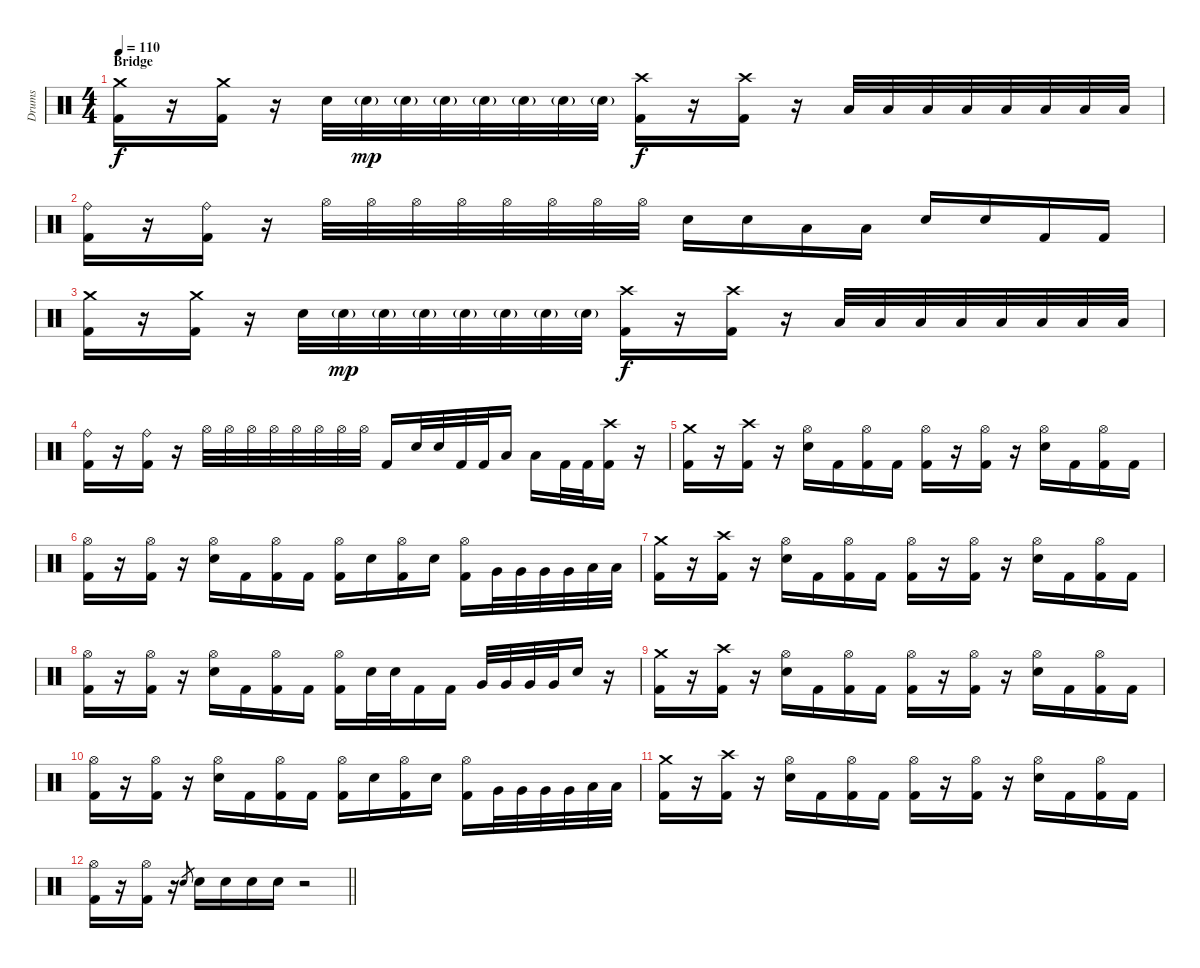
\track ("Drums" "Drums") {instrument percussion}
\staff {score}
\articulation defaults
\ts (4 4)
\section ("" "Bridge")
\tempo 110
\clef neutral
\ks c
("Crash medium (hit)" "Kick (hit) 2").16{dy f} r.16 ("Crash medium (hit)" "Kick (hit) 2").16 r.16 "Electric Snare (hit)".32 "Electric Snare (hit)"{g}.32{dy mp} "Electric Snare (hit)"{g}.32 "Electric Snare (hit)"{g}.32 "Electric Snare (hit)"{g}.32 "Electric Snare (hit)"{g}.32 "Electric Snare (hit)"{g}.32 "Electric Snare (hit)"{g}.32 ("Crash high (hit)" "Kick (hit) 2").16{dy f} r.16 ("Crash high (hit)" "Kick (hit) 2").16 r.16 "Low Floor Tom (hit)".32 "Low Floor Tom (hit)".32 "Low Floor Tom (hit)".32 "Low Floor Tom (hit)".32 "Low Floor Tom (hit)".32 "Low Floor Tom (hit)".32 "Low Floor Tom (hit)".32 "Low Floor Tom (hit)".32 |
("Ride (bell)" "Kick (hit) 2").16 r.16 ("Ride (bell)" "Kick (hit) 2").16 r.16 "Hi-Hat (open)".32 "Hi-Hat (open)".32 "Hi-Hat (open)".32 "Hi-Hat (open)".32 "Hi-Hat (open)".32 "Hi-Hat (open)".32 "Hi-Hat (open)".32 "Hi-Hat (open)".32 "Electric Snare (hit)".16 "Electric Snare (hit)".16 "Low Floor Tom (hit)".16 "Low Floor Tom (hit)".16 "Electric Snare (hit)".16 "Electric Snare (hit)".16 "Kick (hit) 2".16 "Kick (hit) 2".16 |
("Crash medium (hit)" "Kick (hit) 2").16 r.16 ("Crash medium (hit)" "Kick (hit) 2").16 r.16 "Electric Snare (hit)".32 "Electric Snare (hit)"{g}.32{dy mp} "Electric Snare (hit)"{g}.32 "Electric Snare (hit)"{g}.32 "Electric Snare (hit)"{g}.32 "Electric Snare (hit)"{g}.32 "Electric Snare (hit)"{g}.32 "Electric Snare (hit)"{g}.32 ("Crash high (hit)" "Kick (hit) 2").16{dy f} r.16 ("Crash high (hit)" "Kick (hit) 2").16 r.16 "Low Floor Tom (hit)".32 "Low Floor Tom (hit)".32 "Low Floor Tom (hit)".32 "Low Floor Tom (hit)".32 "Low Floor Tom (hit)".32 "Low Floor Tom (hit)".32 "Low Floor Tom (hit)".32 "Low Floor Tom (hit)".32 |
("Ride (bell)" "Kick (hit) 2").16 r.16 ("Ride (bell)" "Kick (hit) 2").16 r.16 "Hi-Hat (open)".32 "Hi-Hat (open)".32 "Hi-Hat (open)".32 "Hi-Hat (open)".32 "Hi-Hat (open)".32 "Hi-Hat (open)".32 "Hi-Hat (open)".32 "Hi-Hat (open)".32 "Kick (hit) 2".16 "Electric Snare (hit)".32 "Electric Snare (hit)".32 "Kick (hit) 2".32 "Kick (hit) 2".32 "Low Floor Tom (hit)".16 "Low Floor Tom (hit)".16 "Kick (hit) 2".32 "Kick (hit) 2".32 ("Crash high (hit)" "Kick (hit) 2").16 r.16 |
("Crash medium (hit)" "Kick (hit) 2").16 r.16 ("Crash high (hit)" "Kick (hit) 2").16 r.16 ("Hi-Hat (open)" "Electric Snare (hit)").16 "Kick (hit) 2".16 ("Hi-Hat (open)" "Kick (hit) 2").16 "Kick (hit) 2".16 ("Hi-Hat (open)" "Kick (hit) 2").16 r.16 ("Hi-Hat (open)" "Kick (hit) 2").16 r.16 ("Hi-Hat (open)" "Electric Snare (hit)").16 "Kick (hit) 2".16 ("Hi-Hat (open)" "Kick (hit) 2").16 "Kick (hit) 2".16 |
("Hi-Hat (open)" "Kick (hit) 2").16 r.16 ("Hi-Hat (open)" "Kick (hit) 2").16 r.16 ("Hi-Hat (open)" "Electric Snare (hit)").16 "Kick (hit) 2".16 ("Hi-Hat (open)" "Kick (hit) 2").16 "Kick (hit) 2".16 ("Hi-Hat (open)" "Kick (hit) 2").16 "Electric Snare (hit)".16 ("Hi-Hat (open)" "Kick (hit) 2").16 "Electric Snare (hit)".16 ("Hi-Hat (open)" "Kick (hit) 2").16 "Very Low Tom (hit)".32 "Very Low Tom (hit)".32 "Very Low Tom (hit)".32 "Very Low Tom (hit)".32 "Low Floor Tom (hit)".32 "Low Floor Tom (hit)".32 |
("Crash medium (hit)" "Kick (hit) 2").16 r.16 ("Crash high (hit)" "Kick (hit) 2").16 r.16 ("Hi-Hat (open)" "Electric Snare (hit)").16 "Kick (hit) 2".16 ("Hi-Hat (open)" "Kick (hit) 2").16 "Kick (hit) 2".16 ("Hi-Hat (open)" "Kick (hit) 2").16 r.16 ("Hi-Hat (open)" "Kick (hit) 2").16 r.16 ("Hi-Hat (open)" "Electric Snare (hit)").16 "Kick (hit) 2".16 ("Hi-Hat (open)" "Kick (hit) 2").16 "Kick (hit) 2".16 |
("Hi-Hat (open)" "Kick (hit) 2").16 r.16 ("Hi-Hat (open)" "Kick (hit) 2").16 r.16 ("Hi-Hat (open)" "Electric Snare (hit)").16 "Kick (hit) 2".16 ("Hi-Hat (open)" "Kick (hit) 2").16 "Kick (hit) 2".16 ("Hi-Hat (open)" "Kick (hit) 2").16 "Electric Snare (hit)".32 "Electric Snare (hit)".32 "Kick (hit) 2".16 "Kick (hit) 2".16 "Very Low Tom (hit)".32 "Very Low Tom (hit)".32 "Very Low Tom (hit)".32 "Very Low Tom (hit)".32 "Electric Snare (hit)".16 r.16 |
("Crash medium (hit)" "Kick (hit) 2").16 r.16 ("Crash high (hit)" "Kick (hit) 2").16 r.16 ("Hi-Hat (open)" "Electric Snare (hit)").16 "Kick (hit) 2".16 ("Hi-Hat (open)" "Kick (hit) 2").16 "Kick (hit) 2".16 ("Hi-Hat (open)" "Kick (hit) 2").16 r.16 ("Hi-Hat (open)" "Kick (hit) 2").16 r.16 ("Hi-Hat (open)" "Electric Snare (hit)").16 "Kick (hit) 2".16 ("Hi-Hat (open)" "Kick (hit) 2").16 "Kick (hit) 2".16 |
("Hi-Hat (open)" "Kick (hit) 2").16 r.16 ("Hi-Hat (open)" "Kick (hit) 2").16 r.16 ("Hi-Hat (open)" "Electric Snare (hit)").16 "Kick (hit) 2".16 ("Hi-Hat (open)" "Kick (hit) 2").16 "Kick (hit) 2".16 ("Hi-Hat (open)" "Kick (hit) 2").16 "Electric Snare (hit)".16 ("Hi-Hat (open)" "Kick (hit) 2").16 "Electric Snare (hit)".16 ("Hi-Hat (open)" "Kick (hit) 2").16 "Very Low Tom (hit)".32 "Very Low Tom (hit)".32 "Very Low Tom (hit)".32 "Very Low Tom (hit)".32 "Low Floor Tom (hit)".32 "Low Floor Tom (hit)".32 |
("Crash medium (hit)" "Kick (hit) 2").16 r.16 ("Crash high (hit)" "Kick (hit) 2").16 r.16 ("Hi-Hat (open)" "Electric Snare (hit)").16 "Kick (hit) 2".16 ("Hi-Hat (open)" "Kick (hit) 2").16 "Kick (hit) 2".16 ("Hi-Hat (open)" "Kick (hit) 2").16 r.16 ("Hi-Hat (open)" "Kick (hit) 2").16 r.16 ("Hi-Hat (open)" "Electric Snare (hit)").16 "Kick (hit) 2".16 ("Hi-Hat (open)" "Kick (hit) 2").16 "Kick (hit) 2".16 |
\barLineRight lightlight
("Hi-Hat (open)" "Kick (hit) 2").16 r.16 ("Hi-Hat (open)" "Kick (hit) 2").16 r.16 "Electric Snare (hit)".8{gr} "Electric Snare (hit)".16 "Electric Snare (hit)".16 "Electric Snare (hit)".16 "Electric Snare (hit)".16 r.2
